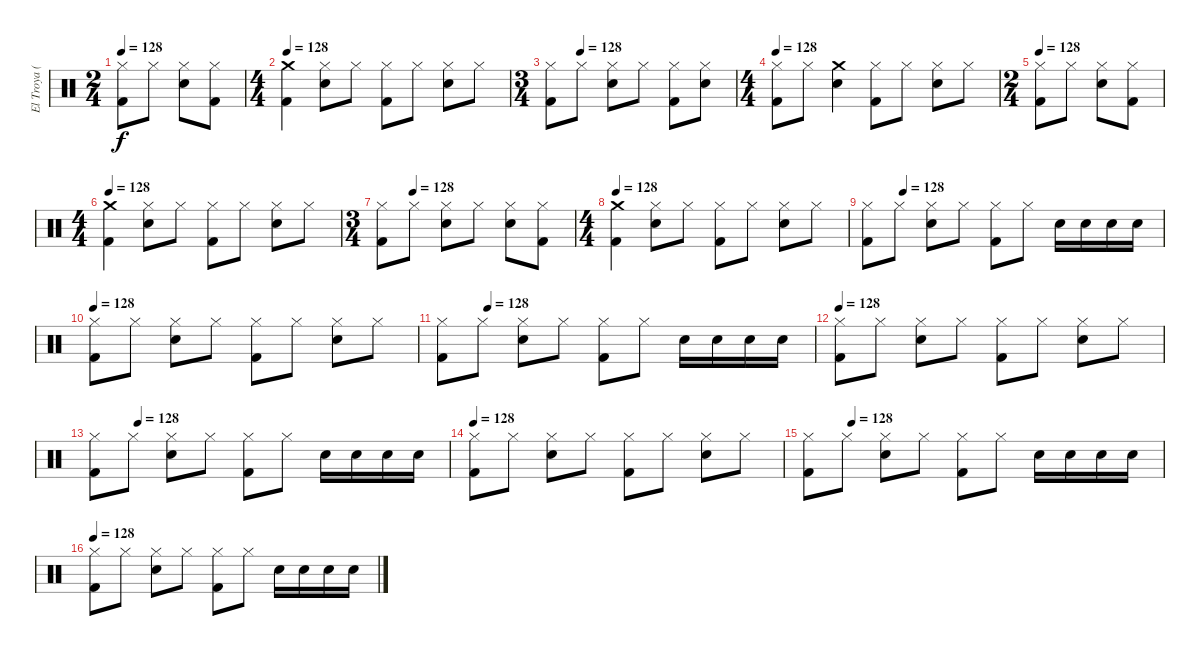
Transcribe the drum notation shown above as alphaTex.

\track ("El Troya (premio)" "El Troya (") {instrument percussion}
\staff {score}
\articulation defaults
\ts (2 4)
\tempo 128
\clef neutral
\ks c
("Kick (hit) 2" "Hi-Hat (closed)").8{dy f} "Hi-Hat (closed)".8 ("Snare (hit) 2" "Hi-Hat (closed)").8 ("Kick (hit) 2" "Hi-Hat (closed)").8 |
\ts (4 4)
\tempo 128
("Crash medium (hit)" "Kick (hit) 2").4 ("Snare (hit) 2" "Hi-Hat (closed)").8 "Hi-Hat (closed)".8 ("Hi-Hat (closed)" "Kick (hit) 2").8 "Hi-Hat (closed)".8 ("Snare (hit) 2" "Hi-Hat (closed)").8 "Hi-Hat (closed)".8 |
\ts (3 4)
\tempo (128 0.16666666666666666)
("Kick (hit) 2" "Hi-Hat (closed)").8 "Hi-Hat (closed)".8 ("Snare (hit) 2" "Hi-Hat (closed)").8 "Hi-Hat (closed)".8 ("Kick (hit) 2" "Hi-Hat (closed)").8 ("Snare (hit) 2" "Hi-Hat (closed)").8 |
\ts (4 4)
\tempo 128
("Hi-Hat (closed)" "Kick (hit) 2").8 "Hi-Hat (closed)".8 ("Snare (hit) 2" "Crash medium (hit)").4 ("Hi-Hat (closed)" "Kick (hit) 2").8 "Hi-Hat (closed)".8 ("Snare (hit) 2" "Hi-Hat (closed)").8 "Hi-Hat (closed)".8 |
\ts (2 4)
\tempo 128
("Kick (hit) 2" "Hi-Hat (closed)").8 "Hi-Hat (closed)".8 ("Snare (hit) 2" "Hi-Hat (closed)").8 ("Kick (hit) 2" "Hi-Hat (closed)").8 |
\ts (4 4)
\tempo 128
("Crash medium (hit)" "Kick (hit) 2").4 ("Snare (hit) 2" "Hi-Hat (closed)").8 "Hi-Hat (closed)".8 ("Hi-Hat (closed)" "Kick (hit) 2").8 "Hi-Hat (closed)".8 ("Snare (hit) 2" "Hi-Hat (closed)").8 "Hi-Hat (closed)".8 |
\ts (3 4)
\tempo (128 0.16666666666666666)
("Kick (hit) 2" "Hi-Hat (closed)").8 "Hi-Hat (closed)".8 ("Snare (hit) 2" "Hi-Hat (closed)").8 "Hi-Hat (closed)".8 ("Hi-Hat (closed)" "Snare (hit) 2").8 ("Kick (hit) 2" "Hi-Hat (closed)").8 |
\ts (4 4)
\tempo 128
("Kick (hit) 2" "Crash medium (hit)").4 ("Hi-Hat (closed)" "Snare (hit) 2").8 "Hi-Hat (closed)".8 ("Hi-Hat (closed)" "Kick (hit) 2").8 "Hi-Hat (closed)".8 ("Snare (hit) 2" "Hi-Hat (closed)").8 "Hi-Hat (closed)".8 |
\tempo (128 0.125)
("Hi-Hat (closed)" "Kick (hit) 2").8 "Hi-Hat (closed)".8 ("Snare (hit) 2" "Hi-Hat (closed)").8 "Hi-Hat (closed)".8 ("Hi-Hat (closed)" "Kick (hit) 2").8 "Hi-Hat (closed)".8 "Snare (hit) 2".16 "Snare (hit) 2".16 "Snare (hit) 2".16 "Snare (hit) 2".16 |
\tempo 128
("Hi-Hat (closed)" "Kick (hit) 2").8 "Hi-Hat (closed)".8 ("Snare (hit) 2" "Hi-Hat (closed)").8 "Hi-Hat (closed)".8 ("Hi-Hat (closed)" "Kick (hit) 2").8 "Hi-Hat (closed)".8 ("Snare (hit) 2" "Hi-Hat (closed)").8 "Hi-Hat (closed)".8 |
\tempo (128 0.125)
("Hi-Hat (closed)" "Kick (hit) 2").8 "Hi-Hat (closed)".8 ("Snare (hit) 2" "Hi-Hat (closed)").8 "Hi-Hat (closed)".8 ("Hi-Hat (closed)" "Kick (hit) 2").8 "Hi-Hat (closed)".8 "Snare (hit) 2".16 "Snare (hit) 2".16 "Snare (hit) 2".16 "Snare (hit) 2".16 |
\tempo 128
("Hi-Hat (closed)" "Kick (hit) 2").8 "Hi-Hat (closed)".8 ("Snare (hit) 2" "Hi-Hat (closed)").8 "Hi-Hat (closed)".8 ("Hi-Hat (closed)" "Kick (hit) 2").8 "Hi-Hat (closed)".8 ("Snare (hit) 2" "Hi-Hat (closed)").8 "Hi-Hat (closed)".8 |
\tempo (128 0.125)
("Hi-Hat (closed)" "Kick (hit) 2").8 "Hi-Hat (closed)".8 ("Snare (hit) 2" "Hi-Hat (closed)").8 "Hi-Hat (closed)".8 ("Hi-Hat (closed)" "Kick (hit) 2").8 "Hi-Hat (closed)".8 "Snare (hit) 2".16 "Snare (hit) 2".16 "Snare (hit) 2".16 "Snare (hit) 2".16 |
\tempo 128
("Hi-Hat (closed)" "Kick (hit) 2").8 "Hi-Hat (closed)".8 ("Snare (hit) 2" "Hi-Hat (closed)").8 "Hi-Hat (closed)".8 ("Hi-Hat (closed)" "Kick (hit) 2").8 "Hi-Hat (closed)".8 ("Snare (hit) 2" "Hi-Hat (closed)").8 "Hi-Hat (closed)".8 |
\tempo (128 0.125)
("Hi-Hat (closed)" "Kick (hit) 2").8 "Hi-Hat (closed)".8 ("Snare (hit) 2" "Hi-Hat (closed)").8 "Hi-Hat (closed)".8 ("Hi-Hat (closed)" "Kick (hit) 2").8 "Hi-Hat (closed)".8 "Snare (hit) 2".16 "Snare (hit) 2".16 "Snare (hit) 2".16 "Snare (hit) 2".16 |
\tempo 128
("Hi-Hat (closed)" "Kick (hit) 2").8 "Hi-Hat (closed)".8 ("Snare (hit) 2" "Hi-Hat (closed)").8 "Hi-Hat (closed)".8 ("Hi-Hat (closed)" "Kick (hit) 2").8 "Hi-Hat (closed)".8 "Snare (hit) 2".16 "Snare (hit) 2".16 "Snare (hit) 2".16 "Snare (hit) 2".16
